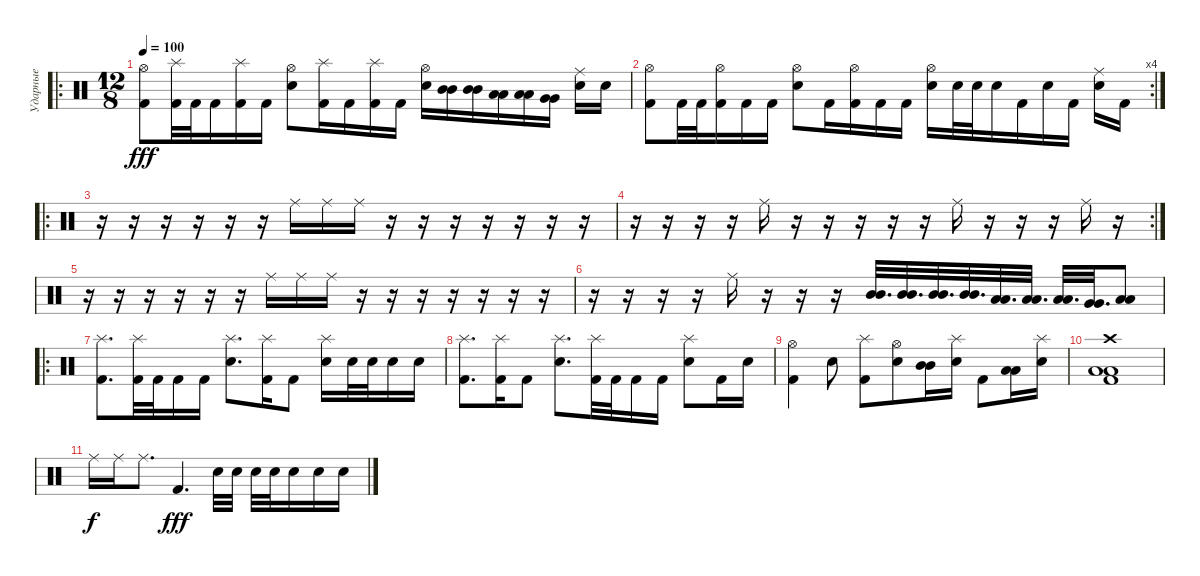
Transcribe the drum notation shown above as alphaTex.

\track ("Ударные" "Ударные") {instrument percussion}
\staff {score}
\articulation defaults
\ro
\ts (12 8)
\tempo 100
\clef neutral
\ks c
("Hi-Hat (open)" "Kick (hit) 2").8{dy fff} ("Splash (hit)" "Kick (hit) 2").32 "Kick (hit) 2".32 "Kick (hit) 2".16 ("Splash (hit)" "Kick (hit) 2").16 "Kick (hit) 2".16 ("Hi-Hat (open)" "Electric Snare (hit)").8 ("Splash (hit)" "Kick (hit) 2").16 "Kick (hit) 2".16 ("Splash (hit)" "Kick (hit) 2").16 "Kick (hit) 2".16 ("Hi-Hat (open)" "Electric Snare (hit)").16 ("Mid Tom (hit)" "Mid Tom (hit)").16 ("Mid Tom (hit)" "Mid Tom (hit)").16 ("Low Tom (hit)" "Low Tom (hit)").16 ("Low Tom (hit)" "Low Tom (hit)").16 ("Very Low Tom (hit)" "Very Low Tom (hit)").16 ("Ride (middle)" "Electric Snare (hit)").16 "Electric Snare (hit)".16 |
\rc 4
("Hi-Hat (open)" "Kick (hit) 2").8 "Kick (hit) 2".32 "Kick (hit) 2".32 ("Hi-Hat (open)" "Kick (hit) 2").16 "Kick (hit) 2".16 "Kick (hit) 2".16 ("Hi-Hat (open)" "Electric Snare (hit)").8 "Kick (hit) 2".16 ("Hi-Hat (open)" "Kick (hit) 2").16 "Kick (hit) 2".16 "Kick (hit) 2".16 ("Hi-Hat (open)" "Electric Snare (hit)").16 "Electric Snare (hit)".32 "Electric Snare (hit)".32 "Electric Snare (hit)".16 "Kick (hit) 2".16 "Electric Snare (hit)".16 "Kick (hit) 2".16 ("Ride (middle)" "Electric Snare (hit)").16 "Kick (hit) 2".16 |
\ro
r.16 r.16 r.16 r.16 r.16 r.16 "Ride (middle)".16 "Ride (middle)".16 "Ride (middle)".16 r.16 r.16 r.16 r.16 r.16 r.16 r.16 |
\rc 2
r.16 r.16 r.16 r.16 "Ride (middle)".16 r.16 r.16 r.16 r.16 r.16 "Ride (middle)".16 r.16 r.16 r.16 "Ride (middle)".16 r.16 |
r.16 r.16 r.16 r.16 r.16 r.16 "Ride (middle)".16 "Ride (middle)".16 "Ride (middle)".16 r.16 r.16 r.16 r.16 r.16 r.16 r.16 |
r.16 r.16 r.16 r.16 "Ride (middle)".16 r.16 r.16 r.16 ("Mid Tom (hit)" "Mid Tom (hit)").32{d} ("Mid Tom (hit)" "Mid Tom (hit)").32{d} ("Mid Tom (hit)" "Mid Tom (hit)").32{d} ("Mid Tom (hit)" "Mid Tom (hit)").32{d} ("Low Tom (hit)" "Low Tom (hit)").32{d} ("Low Tom (hit)" "Low Tom (hit)").32{d} ("Low Tom (hit)" "Low Tom (hit)").32{d} ("Very Low Tom (hit)" "Very Low Tom (hit)").32{d} ("Low Floor Tom (hit)" "Low Floor Tom (hit)").8 |
\ro
("Splash (hit)" "Kick (hit) 2").8{d} ("Splash (hit)" "Kick (hit) 2").32 "Kick (hit) 2".32 "Kick (hit) 2".16 "Kick (hit) 2".16 ("Splash (hit)" "Electric Snare (hit)").8{d} ("Splash (hit)" "Kick (hit) 2").16 "Kick (hit) 2".8 ("Splash (hit)" "Electric Snare (hit)").16 "Electric Snare (hit)".32 "Electric Snare (hit)".32 "Electric Snare (hit)".16 "Electric Snare (hit)".16 |
("Splash (hit)" "Kick (hit) 2").8{d} ("Splash (hit)" "Kick (hit) 2").16 "Kick (hit) 2".8 ("Splash (hit)" "Electric Snare (hit)").8{d} ("Splash (hit)" "Kick (hit) 2").32 "Kick (hit) 2".32 "Kick (hit) 2".16 "Kick (hit) 2".16 ("Splash (hit)" "Electric Snare (hit)").8 "Kick (hit) 2".16 "Electric Snare (hit)".16 |
("Hi-Hat (open)" "Kick (hit) 2").4 "Electric Snare (hit)".8 ("Splash (hit)" "Kick (hit) 2").8 ("Hi-Hat (open)" "Electric Snare (hit)").8 ("Mid Tom (hit)" "Mid Tom (hit)").16 ("Splash (hit)" "Electric Snare (hit)").16 "Kick (hit) 2".8 ("Low Tom (hit)" "Low Tom (hit)").16 ("Splash (hit)" "Electric Snare (hit)").16 |
("Crash high (hit)" "Low Floor Tom (hit)" "Low Floor Tom (hit)" "Kick (hit) 2").1 |
"Ride (middle)".16{dy f} "Ride (middle)".16 "Ride (middle)".8{d} "Kick (hit) 2".4{d dy fff} "Electric Snare (hit)".32 "Electric Snare (hit)".32 "Electric Snare (hit)".32 "Electric Snare (hit)".32 "Electric Snare (hit)".16 "Electric Snare (hit)".16 "Electric Snare (hit)".16
